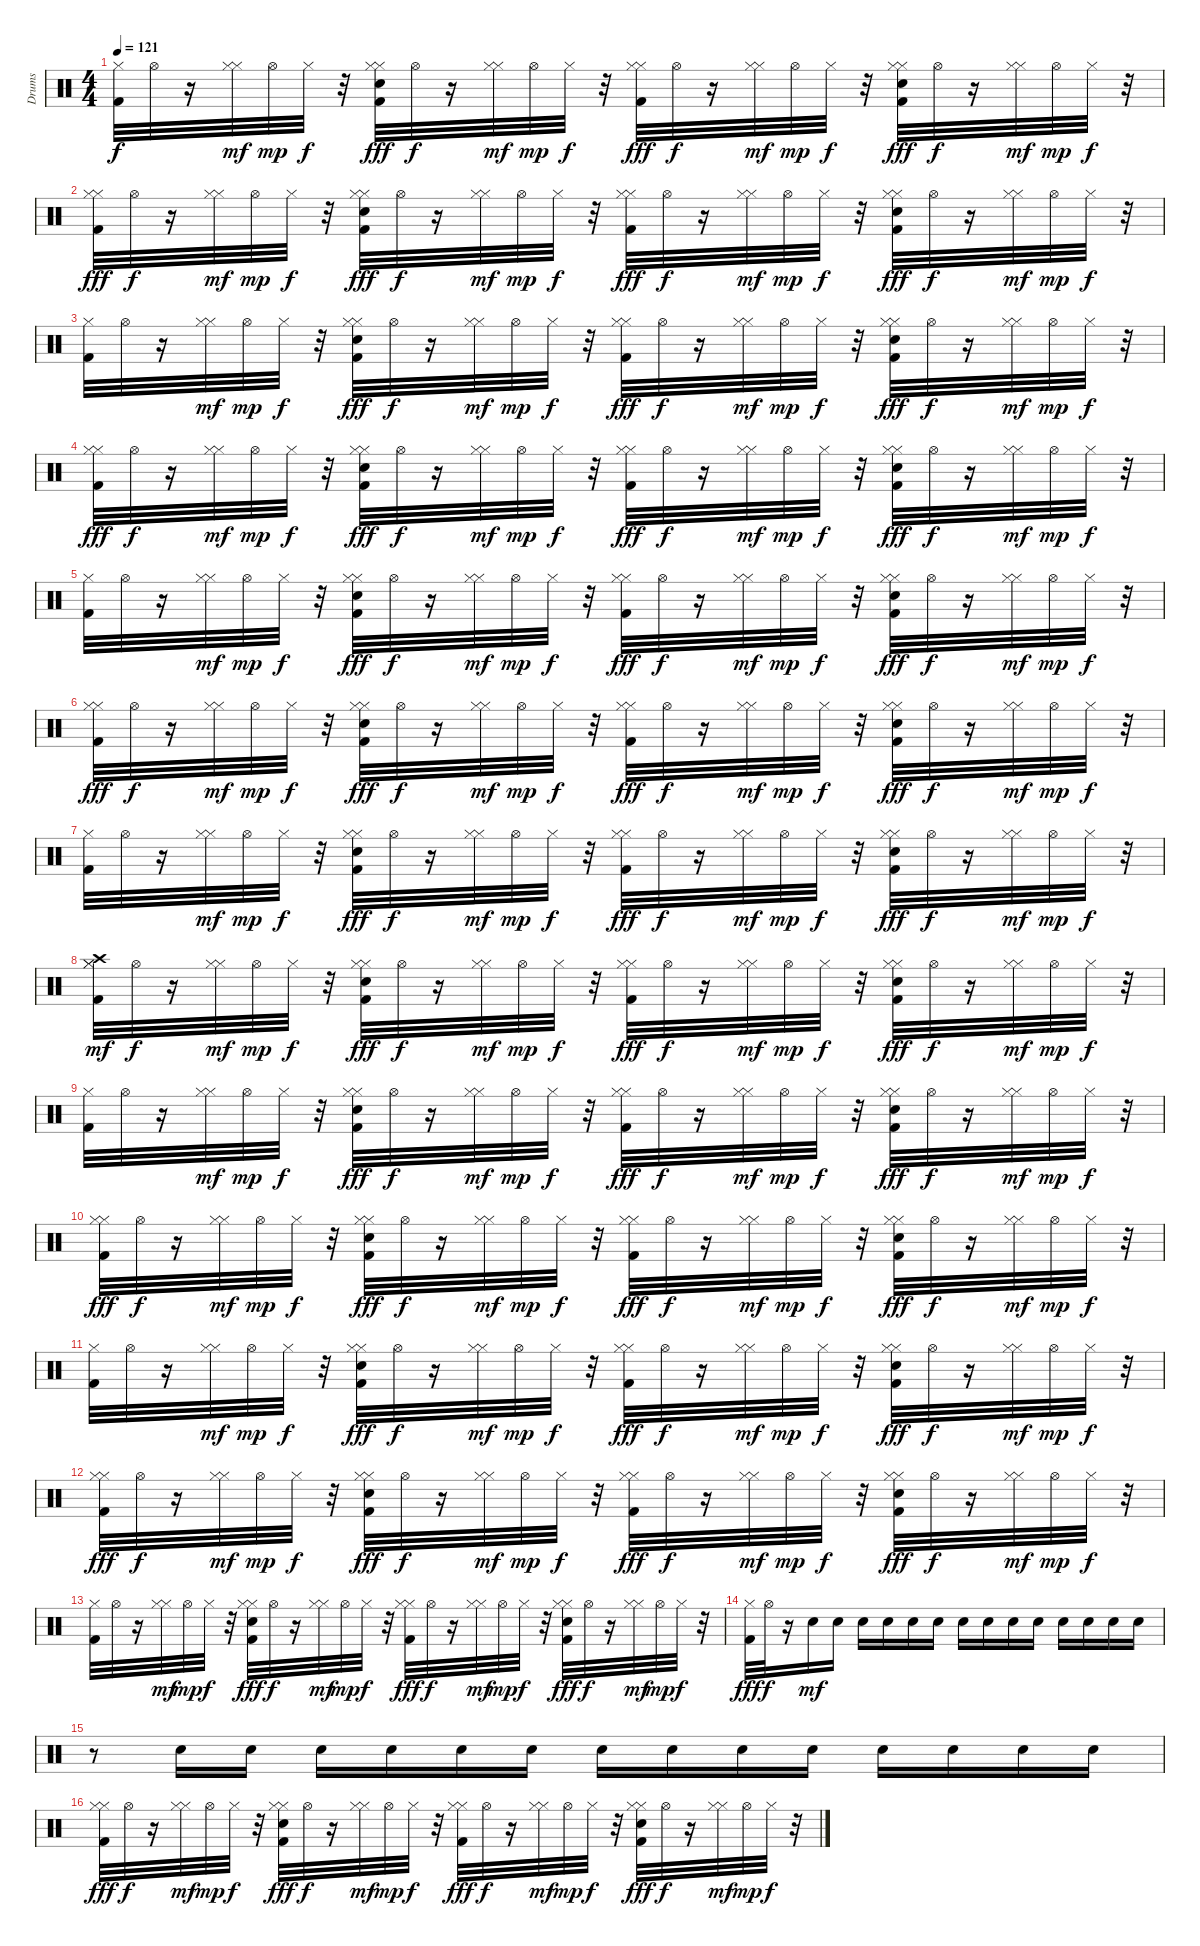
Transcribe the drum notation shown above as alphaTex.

\track ("Drums" "Drums") {instrument percussion}
\staff {score}
\articulation defaults
\ts (4 4)
\tempo 121
\clef neutral
\ks c
("Kick (hit) 2" "Hi-Hat (closed)").32{dy f} "Hi-Hat (open)".32 r.16 ("Hi-Hat (closed)" "Hi-Hat (closed)").32{dy mf} "Hi-Hat (open)".32{dy mp} "Hi-Hat (closed)".32{dy f} r.32 ("Kick (hit) 2" "Hi-Hat (closed)" "Snare (hit) 2" "Hi-Hat (closed)").32{dy fff} "Hi-Hat (open)".32{dy f} r.16 ("Hi-Hat (closed)" "Hi-Hat (closed)").32{dy mf} "Hi-Hat (open)".32{dy mp} "Hi-Hat (closed)".32{dy f} r.32 ("Hi-Hat (closed)" "Kick (hit) 2" "Hi-Hat (closed)").32{dy fff} "Hi-Hat (open)".32{dy f} r.16 ("Hi-Hat (closed)" "Hi-Hat (closed)").32{dy mf} "Hi-Hat (open)".32{dy mp} "Hi-Hat (closed)".32{dy f} r.32 ("Kick (hit) 2" "Hi-Hat (closed)" "Snare (hit) 2" "Hi-Hat (closed)").32{dy fff} "Hi-Hat (open)".32{dy f} r.16 ("Hi-Hat (closed)" "Hi-Hat (closed)").32{dy mf} "Hi-Hat (open)".32{dy mp} "Hi-Hat (closed)".32{dy f} r.32 |
("Hi-Hat (closed)" "Kick (hit) 2" "Hi-Hat (closed)").32{dy fff} "Hi-Hat (open)".32{dy f} r.16 ("Hi-Hat (closed)" "Hi-Hat (closed)").32{dy mf} "Hi-Hat (open)".32{dy mp} "Hi-Hat (closed)".32{dy f} r.32 ("Kick (hit) 2" "Hi-Hat (closed)" "Snare (hit) 2" "Hi-Hat (closed)").32{dy fff} "Hi-Hat (open)".32{dy f} r.16 ("Hi-Hat (closed)" "Hi-Hat (closed)").32{dy mf} "Hi-Hat (open)".32{dy mp} "Hi-Hat (closed)".32{dy f} r.32 ("Hi-Hat (closed)" "Kick (hit) 2" "Hi-Hat (closed)").32{dy fff} "Hi-Hat (open)".32{dy f} r.16 ("Hi-Hat (closed)" "Hi-Hat (closed)").32{dy mf} "Hi-Hat (open)".32{dy mp} "Hi-Hat (closed)".32{dy f} r.32 ("Kick (hit) 2" "Hi-Hat (closed)" "Snare (hit) 2" "Hi-Hat (closed)").32{dy fff} "Hi-Hat (open)".32{dy f} r.16 ("Hi-Hat (closed)" "Hi-Hat (closed)").32{dy mf} "Hi-Hat (open)".32{dy mp} "Hi-Hat (closed)".32{dy f} r.32 |
("Kick (hit) 2" "Hi-Hat (closed)").32 "Hi-Hat (open)".32 r.16 ("Hi-Hat (closed)" "Hi-Hat (closed)").32{dy mf} "Hi-Hat (open)".32{dy mp} "Hi-Hat (closed)".32{dy f} r.32 ("Kick (hit) 2" "Hi-Hat (closed)" "Snare (hit) 2" "Hi-Hat (closed)").32{dy fff} "Hi-Hat (open)".32{dy f} r.16 ("Hi-Hat (closed)" "Hi-Hat (closed)").32{dy mf} "Hi-Hat (open)".32{dy mp} "Hi-Hat (closed)".32{dy f} r.32 ("Hi-Hat (closed)" "Kick (hit) 2" "Hi-Hat (closed)").32{dy fff} "Hi-Hat (open)".32{dy f} r.16 ("Hi-Hat (closed)" "Hi-Hat (closed)").32{dy mf} "Hi-Hat (open)".32{dy mp} "Hi-Hat (closed)".32{dy f} r.32 ("Kick (hit) 2" "Hi-Hat (closed)" "Snare (hit) 2" "Hi-Hat (closed)").32{dy fff} "Hi-Hat (open)".32{dy f} r.16 ("Hi-Hat (closed)" "Hi-Hat (closed)").32{dy mf} "Hi-Hat (open)".32{dy mp} "Hi-Hat (closed)".32{dy f} r.32 |
("Hi-Hat (closed)" "Kick (hit) 2" "Hi-Hat (closed)").32{dy fff} "Hi-Hat (open)".32{dy f} r.16 ("Hi-Hat (closed)" "Hi-Hat (closed)").32{dy mf} "Hi-Hat (open)".32{dy mp} "Hi-Hat (closed)".32{dy f} r.32 ("Kick (hit) 2" "Hi-Hat (closed)" "Snare (hit) 2" "Hi-Hat (closed)").32{dy fff} "Hi-Hat (open)".32{dy f} r.16 ("Hi-Hat (closed)" "Hi-Hat (closed)").32{dy mf} "Hi-Hat (open)".32{dy mp} "Hi-Hat (closed)".32{dy f} r.32 ("Hi-Hat (closed)" "Kick (hit) 2" "Hi-Hat (closed)").32{dy fff} "Hi-Hat (open)".32{dy f} r.16 ("Hi-Hat (closed)" "Hi-Hat (closed)").32{dy mf} "Hi-Hat (open)".32{dy mp} "Hi-Hat (closed)".32{dy f} r.32 ("Kick (hit) 2" "Hi-Hat (closed)" "Snare (hit) 2" "Hi-Hat (closed)").32{dy fff} "Hi-Hat (open)".32{dy f} r.16 ("Hi-Hat (closed)" "Hi-Hat (closed)").32{dy mf} "Hi-Hat (open)".32{dy mp} "Hi-Hat (closed)".32{dy f} r.32 |
("Kick (hit) 2" "Hi-Hat (closed)").32 "Hi-Hat (open)".32 r.16 ("Hi-Hat (closed)" "Hi-Hat (closed)").32{dy mf} "Hi-Hat (open)".32{dy mp} "Hi-Hat (closed)".32{dy f} r.32 ("Kick (hit) 2" "Hi-Hat (closed)" "Snare (hit) 2" "Hi-Hat (closed)").32{dy fff} "Hi-Hat (open)".32{dy f} r.16 ("Hi-Hat (closed)" "Hi-Hat (closed)").32{dy mf} "Hi-Hat (open)".32{dy mp} "Hi-Hat (closed)".32{dy f} r.32 ("Hi-Hat (closed)" "Kick (hit) 2" "Hi-Hat (closed)").32{dy fff} "Hi-Hat (open)".32{dy f} r.16 ("Hi-Hat (closed)" "Hi-Hat (closed)").32{dy mf} "Hi-Hat (open)".32{dy mp} "Hi-Hat (closed)".32{dy f} r.32 ("Kick (hit) 2" "Hi-Hat (closed)" "Snare (hit) 2" "Hi-Hat (closed)").32{dy fff} "Hi-Hat (open)".32{dy f} r.16 ("Hi-Hat (closed)" "Hi-Hat (closed)").32{dy mf} "Hi-Hat (open)".32{dy mp} "Hi-Hat (closed)".32{dy f} r.32 |
("Hi-Hat (closed)" "Kick (hit) 2" "Hi-Hat (closed)").32{dy fff} "Hi-Hat (open)".32{dy f} r.16 ("Hi-Hat (closed)" "Hi-Hat (closed)").32{dy mf} "Hi-Hat (open)".32{dy mp} "Hi-Hat (closed)".32{dy f} r.32 ("Kick (hit) 2" "Hi-Hat (closed)" "Snare (hit) 2" "Hi-Hat (closed)").32{dy fff} "Hi-Hat (open)".32{dy f} r.16 ("Hi-Hat (closed)" "Hi-Hat (closed)").32{dy mf} "Hi-Hat (open)".32{dy mp} "Hi-Hat (closed)".32{dy f} r.32 ("Hi-Hat (closed)" "Kick (hit) 2" "Hi-Hat (closed)").32{dy fff} "Hi-Hat (open)".32{dy f} r.16 ("Hi-Hat (closed)" "Hi-Hat (closed)").32{dy mf} "Hi-Hat (open)".32{dy mp} "Hi-Hat (closed)".32{dy f} r.32 ("Kick (hit) 2" "Hi-Hat (closed)" "Snare (hit) 2" "Hi-Hat (closed)").32{dy fff} "Hi-Hat (open)".32{dy f} r.16 ("Hi-Hat (closed)" "Hi-Hat (closed)").32{dy mf} "Hi-Hat (open)".32{dy mp} "Hi-Hat (closed)".32{dy f} r.32 |
("Kick (hit) 2" "Hi-Hat (closed)").32 "Hi-Hat (open)".32 r.16 ("Hi-Hat (closed)" "Hi-Hat (closed)").32{dy mf} "Hi-Hat (open)".32{dy mp} "Hi-Hat (closed)".32{dy f} r.32 ("Kick (hit) 2" "Hi-Hat (closed)" "Snare (hit) 2" "Hi-Hat (closed)").32{dy fff} "Hi-Hat (open)".32{dy f} r.16 ("Hi-Hat (closed)" "Hi-Hat (closed)").32{dy mf} "Hi-Hat (open)".32{dy mp} "Hi-Hat (closed)".32{dy f} r.32 ("Hi-Hat (closed)" "Kick (hit) 2" "Hi-Hat (closed)").32{dy fff} "Hi-Hat (open)".32{dy f} r.16 ("Hi-Hat (closed)" "Hi-Hat (closed)").32{dy mf} "Hi-Hat (open)".32{dy mp} "Hi-Hat (closed)".32{dy f} r.32 ("Kick (hit) 2" "Hi-Hat (closed)" "Snare (hit) 2" "Hi-Hat (closed)").32{dy fff} "Hi-Hat (open)".32{dy f} r.16 ("Hi-Hat (closed)" "Hi-Hat (closed)").32{dy mf} "Hi-Hat (open)".32{dy mp} "Hi-Hat (closed)".32{dy f} r.32 |
("Hi-Hat (closed)" "Kick (hit) 2" "Hi-Hat (closed)" "Crash high (hit)").32{dy mf} "Hi-Hat (open)".32{dy f} r.16 ("Hi-Hat (closed)" "Hi-Hat (closed)").32{dy mf} "Hi-Hat (open)".32{dy mp} "Hi-Hat (closed)".32{dy f} r.32 ("Kick (hit) 2" "Hi-Hat (closed)" "Snare (hit) 2" "Hi-Hat (closed)").32{dy fff} "Hi-Hat (open)".32{dy f} r.16 ("Hi-Hat (closed)" "Hi-Hat (closed)").32{dy mf} "Hi-Hat (open)".32{dy mp} "Hi-Hat (closed)".32{dy f} r.32 ("Hi-Hat (closed)" "Kick (hit) 2" "Hi-Hat (closed)").32{dy fff} "Hi-Hat (open)".32{dy f} r.16 ("Hi-Hat (closed)" "Hi-Hat (closed)").32{dy mf} "Hi-Hat (open)".32{dy mp} "Hi-Hat (closed)".32{dy f} r.32 ("Kick (hit) 2" "Hi-Hat (closed)" "Snare (hit) 2" "Hi-Hat (closed)").32{dy fff} "Hi-Hat (open)".32{dy f} r.16 ("Hi-Hat (closed)" "Hi-Hat (closed)").32{dy mf} "Hi-Hat (open)".32{dy mp} "Hi-Hat (closed)".32{dy f} r.32 |
("Kick (hit) 2" "Hi-Hat (closed)").32 "Hi-Hat (open)".32 r.16 ("Hi-Hat (closed)" "Hi-Hat (closed)").32{dy mf} "Hi-Hat (open)".32{dy mp} "Hi-Hat (closed)".32{dy f} r.32 ("Kick (hit) 2" "Hi-Hat (closed)" "Snare (hit) 2" "Hi-Hat (closed)").32{dy fff} "Hi-Hat (open)".32{dy f} r.16 ("Hi-Hat (closed)" "Hi-Hat (closed)").32{dy mf} "Hi-Hat (open)".32{dy mp} "Hi-Hat (closed)".32{dy f} r.32 ("Hi-Hat (closed)" "Kick (hit) 2" "Hi-Hat (closed)").32{dy fff} "Hi-Hat (open)".32{dy f} r.16 ("Hi-Hat (closed)" "Hi-Hat (closed)").32{dy mf} "Hi-Hat (open)".32{dy mp} "Hi-Hat (closed)".32{dy f} r.32 ("Kick (hit) 2" "Hi-Hat (closed)" "Snare (hit) 2" "Hi-Hat (closed)").32{dy fff} "Hi-Hat (open)".32{dy f} r.16 ("Hi-Hat (closed)" "Hi-Hat (closed)").32{dy mf} "Hi-Hat (open)".32{dy mp} "Hi-Hat (closed)".32{dy f} r.32 |
("Hi-Hat (closed)" "Kick (hit) 2" "Hi-Hat (closed)").32{dy fff} "Hi-Hat (open)".32{dy f} r.16 ("Hi-Hat (closed)" "Hi-Hat (closed)").32{dy mf} "Hi-Hat (open)".32{dy mp} "Hi-Hat (closed)".32{dy f} r.32 ("Kick (hit) 2" "Hi-Hat (closed)" "Snare (hit) 2" "Hi-Hat (closed)").32{dy fff} "Hi-Hat (open)".32{dy f} r.16 ("Hi-Hat (closed)" "Hi-Hat (closed)").32{dy mf} "Hi-Hat (open)".32{dy mp} "Hi-Hat (closed)".32{dy f} r.32 ("Hi-Hat (closed)" "Kick (hit) 2" "Hi-Hat (closed)").32{dy fff} "Hi-Hat (open)".32{dy f} r.16 ("Hi-Hat (closed)" "Hi-Hat (closed)").32{dy mf} "Hi-Hat (open)".32{dy mp} "Hi-Hat (closed)".32{dy f} r.32 ("Kick (hit) 2" "Hi-Hat (closed)" "Snare (hit) 2" "Hi-Hat (closed)").32{dy fff} "Hi-Hat (open)".32{dy f} r.16 ("Hi-Hat (closed)" "Hi-Hat (closed)").32{dy mf} "Hi-Hat (open)".32{dy mp} "Hi-Hat (closed)".32{dy f} r.32 |
("Kick (hit) 2" "Hi-Hat (closed)").32 "Hi-Hat (open)".32 r.16 ("Hi-Hat (closed)" "Hi-Hat (closed)").32{dy mf} "Hi-Hat (open)".32{dy mp} "Hi-Hat (closed)".32{dy f} r.32 ("Kick (hit) 2" "Hi-Hat (closed)" "Snare (hit) 2" "Hi-Hat (closed)").32{dy fff} "Hi-Hat (open)".32{dy f} r.16 ("Hi-Hat (closed)" "Hi-Hat (closed)").32{dy mf} "Hi-Hat (open)".32{dy mp} "Hi-Hat (closed)".32{dy f} r.32 ("Hi-Hat (closed)" "Kick (hit) 2" "Hi-Hat (closed)").32{dy fff} "Hi-Hat (open)".32{dy f} r.16 ("Hi-Hat (closed)" "Hi-Hat (closed)").32{dy mf} "Hi-Hat (open)".32{dy mp} "Hi-Hat (closed)".32{dy f} r.32 ("Kick (hit) 2" "Hi-Hat (closed)" "Snare (hit) 2" "Hi-Hat (closed)").32{dy fff} "Hi-Hat (open)".32{dy f} r.16 ("Hi-Hat (closed)" "Hi-Hat (closed)").32{dy mf} "Hi-Hat (open)".32{dy mp} "Hi-Hat (closed)".32{dy f} r.32 |
("Hi-Hat (closed)" "Kick (hit) 2" "Hi-Hat (closed)").32{dy fff} "Hi-Hat (open)".32{dy f} r.16 ("Hi-Hat (closed)" "Hi-Hat (closed)").32{dy mf} "Hi-Hat (open)".32{dy mp} "Hi-Hat (closed)".32{dy f} r.32 ("Kick (hit) 2" "Hi-Hat (closed)" "Snare (hit) 2" "Hi-Hat (closed)").32{dy fff} "Hi-Hat (open)".32{dy f} r.16 ("Hi-Hat (closed)" "Hi-Hat (closed)").32{dy mf} "Hi-Hat (open)".32{dy mp} "Hi-Hat (closed)".32{dy f} r.32 ("Hi-Hat (closed)" "Kick (hit) 2" "Hi-Hat (closed)").32{dy fff} "Hi-Hat (open)".32{dy f} r.16 ("Hi-Hat (closed)" "Hi-Hat (closed)").32{dy mf} "Hi-Hat (open)".32{dy mp} "Hi-Hat (closed)".32{dy f} r.32 ("Kick (hit) 2" "Hi-Hat (closed)" "Snare (hit) 2" "Hi-Hat (closed)").32{dy fff} "Hi-Hat (open)".32{dy f} r.16 ("Hi-Hat (closed)" "Hi-Hat (closed)").32{dy mf} "Hi-Hat (open)".32{dy mp} "Hi-Hat (closed)".32{dy f} r.32 |
("Kick (hit) 2" "Hi-Hat (closed)").32 "Hi-Hat (open)".32 r.16 ("Hi-Hat (closed)" "Hi-Hat (closed)").32{dy mf} "Hi-Hat (open)".32{dy mp} "Hi-Hat (closed)".32{dy f} r.32 ("Kick (hit) 2" "Hi-Hat (closed)" "Snare (hit) 2" "Hi-Hat (closed)").32{dy fff} "Hi-Hat (open)".32{dy f} r.16 ("Hi-Hat (closed)" "Hi-Hat (closed)").32{dy mf} "Hi-Hat (open)".32{dy mp} "Hi-Hat (closed)".32{dy f} r.32 ("Hi-Hat (closed)" "Kick (hit) 2" "Hi-Hat (closed)").32{dy fff} "Hi-Hat (open)".32{dy f} r.16 ("Hi-Hat (closed)" "Hi-Hat (closed)").32{dy mf} "Hi-Hat (open)".32{dy mp} "Hi-Hat (closed)".32{dy f} r.32 ("Kick (hit) 2" "Hi-Hat (closed)" "Snare (hit) 2" "Hi-Hat (closed)").32{dy fff} "Hi-Hat (open)".32{dy f} r.16 ("Hi-Hat (closed)" "Hi-Hat (closed)").32{dy mf} "Hi-Hat (open)".32{dy mp} "Hi-Hat (closed)".32{dy f} r.32 |
("Kick (hit) 2" "Hi-Hat (closed)").32{dy fff} "Hi-Hat (open)".32{dy f} r.16 "Snare (hit) 2".16{dy mf volume 12} "Snare (hit) 2".16 "Snare (hit) 2".16 "Snare (hit) 2".16 "Snare (hit) 2".16 "Snare (hit) 2".16 "Snare (hit) 2".16 "Snare (hit) 2".16 "Snare (hit) 2".16 "Snare (hit) 2".16 "Snare (hit) 2".16 "Snare (hit) 2".16 "Snare (hit) 2".16 "Snare (hit) 2".16 |
r.8 "Snare (hit) 2".16 "Snare (hit) 2".16{volume 12} "Snare (hit) 2".16{volume 12} "Snare (hit) 2".16 "Snare (hit) 2".16 "Snare (hit) 2".16{volume 13} "Snare (hit) 2".16 "Snare (hit) 2".16 "Snare (hit) 2".16 "Snare (hit) 2".16 "Snare (hit) 2".16 "Snare (hit) 2".16 "Snare (hit) 2".16 "Snare (hit) 2".16 |
("Hi-Hat (closed)" "Kick (hit) 2" "Hi-Hat (closed)").32{dy fff} "Hi-Hat (open)".32{dy f} r.16 ("Hi-Hat (closed)" "Hi-Hat (closed)").32{dy mf} "Hi-Hat (open)".32{dy mp} "Hi-Hat (closed)".32{dy f} r.32 ("Kick (hit) 2" "Hi-Hat (closed)" "Snare (hit) 2" "Hi-Hat (closed)").32{dy fff} "Hi-Hat (open)".32{dy f} r.16 ("Hi-Hat (closed)" "Hi-Hat (closed)").32{dy mf} "Hi-Hat (open)".32{dy mp} "Hi-Hat (closed)".32{dy f} r.32 ("Hi-Hat (closed)" "Kick (hit) 2" "Hi-Hat (closed)").32{dy fff} "Hi-Hat (open)".32{dy f} r.16 ("Hi-Hat (closed)" "Hi-Hat (closed)").32{dy mf} "Hi-Hat (open)".32{dy mp} "Hi-Hat (closed)".32{dy f} r.32 ("Kick (hit) 2" "Hi-Hat (closed)" "Snare (hit) 2" "Hi-Hat (closed)").32{dy fff} "Hi-Hat (open)".32{dy f} r.16 ("Hi-Hat (closed)" "Hi-Hat (closed)").32{dy mf} "Hi-Hat (open)".32{dy mp} "Hi-Hat (closed)".32{dy f} r.32
